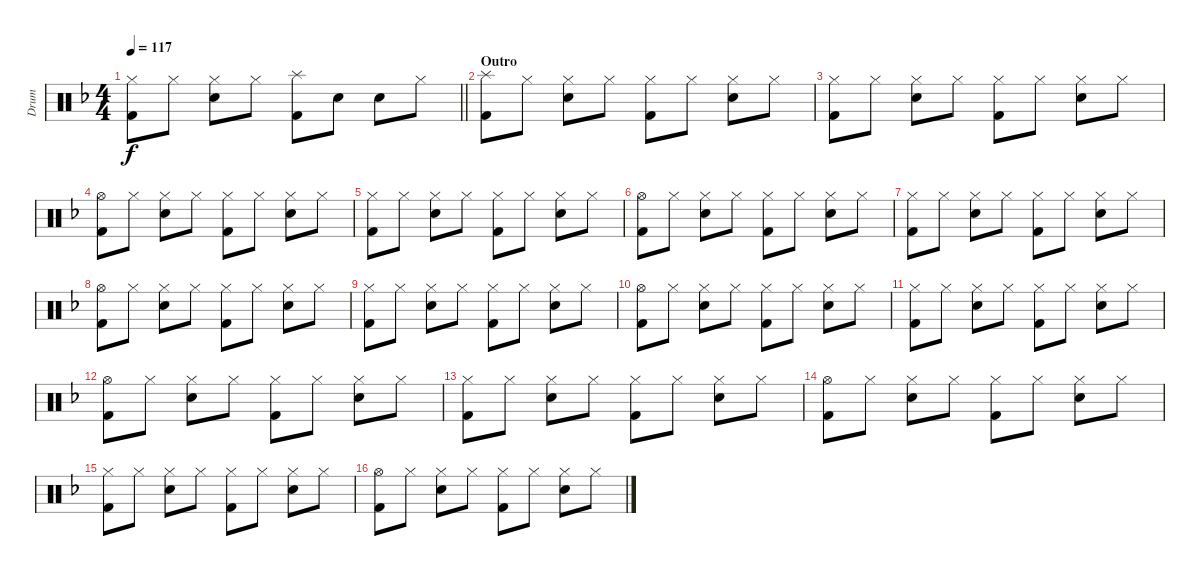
\track ("Drum" "Drum") {instrument percussion}
\staff {score}
\articulation defaults
\ts (4 4)
\tempo 117
\clef neutral
\barLineRight lightlight
\ks f
("Kick (hit) 2" "Hi-Hat (closed)").8{dy f} "Hi-Hat (closed)".8 ("Snare (hit) 2" "Hi-Hat (closed)").8 "Hi-Hat (closed)".8 ("Kick (hit) 2" "Splash (hit)").8 "Snare (hit) 2".8 "Snare (hit) 2".8 "Hi-Hat (closed)".8 |
\section ("" "Outro")
("Kick (hit) 2" "Splash (hit)").8 "Hi-Hat (closed)".8 ("Snare (hit) 2" "Hi-Hat (closed)").8 "Hi-Hat (closed)".8 ("Kick (hit) 2" "Hi-Hat (closed)").8 "Hi-Hat (closed)".8 ("Snare (hit) 2" "Hi-Hat (closed)").8 "Hi-Hat (closed)".8 |
("Kick (hit) 2" "Hi-Hat (closed)").8 "Hi-Hat (closed)".8 ("Snare (hit) 2" "Hi-Hat (closed)").8 "Hi-Hat (closed)".8 ("Kick (hit) 2" "Hi-Hat (closed)").8 "Hi-Hat (closed)".8 ("Snare (hit) 2" "Hi-Hat (closed)").8 "Hi-Hat (closed)".8 |
("Kick (hit) 2" "Hi-Hat (open)").8 "Hi-Hat (closed)".8 ("Snare (hit) 2" "Hi-Hat (closed)").8 "Hi-Hat (closed)".8 ("Kick (hit) 2" "Hi-Hat (closed)").8 "Hi-Hat (closed)".8 ("Snare (hit) 2" "Hi-Hat (closed)").8 "Hi-Hat (closed)".8 |
("Kick (hit) 2" "Hi-Hat (closed)").8 "Hi-Hat (closed)".8 ("Snare (hit) 2" "Hi-Hat (closed)").8 "Hi-Hat (closed)".8 ("Kick (hit) 2" "Hi-Hat (closed)").8 "Hi-Hat (closed)".8 ("Snare (hit) 2" "Hi-Hat (closed)").8 "Hi-Hat (closed)".8 |
("Kick (hit) 2" "Hi-Hat (open)").8 "Hi-Hat (closed)".8 ("Snare (hit) 2" "Hi-Hat (closed)").8 "Hi-Hat (closed)".8 ("Kick (hit) 2" "Hi-Hat (closed)").8 "Hi-Hat (closed)".8 ("Snare (hit) 2" "Hi-Hat (closed)").8 "Hi-Hat (closed)".8 |
("Kick (hit) 2" "Hi-Hat (closed)").8 "Hi-Hat (closed)".8 ("Snare (hit) 2" "Hi-Hat (closed)").8 "Hi-Hat (closed)".8 ("Kick (hit) 2" "Hi-Hat (closed)").8 "Hi-Hat (closed)".8 ("Snare (hit) 2" "Hi-Hat (closed)").8 "Hi-Hat (closed)".8 |
("Kick (hit) 2" "Hi-Hat (open)").8 "Hi-Hat (closed)".8 ("Snare (hit) 2" "Hi-Hat (closed)").8 "Hi-Hat (closed)".8 ("Kick (hit) 2" "Hi-Hat (closed)").8 "Hi-Hat (closed)".8 ("Snare (hit) 2" "Hi-Hat (closed)").8 "Hi-Hat (closed)".8 |
("Kick (hit) 2" "Hi-Hat (closed)").8 "Hi-Hat (closed)".8 ("Snare (hit) 2" "Hi-Hat (closed)").8 "Hi-Hat (closed)".8 ("Kick (hit) 2" "Hi-Hat (closed)").8 "Hi-Hat (closed)".8 ("Snare (hit) 2" "Hi-Hat (closed)").8 "Hi-Hat (closed)".8 |
("Kick (hit) 2" "Hi-Hat (open)").8 "Hi-Hat (closed)".8 ("Snare (hit) 2" "Hi-Hat (closed)").8 "Hi-Hat (closed)".8 ("Kick (hit) 2" "Hi-Hat (closed)").8 "Hi-Hat (closed)".8 ("Snare (hit) 2" "Hi-Hat (closed)").8 "Hi-Hat (closed)".8 |
("Kick (hit) 2" "Hi-Hat (closed)").8 "Hi-Hat (closed)".8 ("Snare (hit) 2" "Hi-Hat (closed)").8 "Hi-Hat (closed)".8 ("Kick (hit) 2" "Hi-Hat (closed)").8 "Hi-Hat (closed)".8 ("Snare (hit) 2" "Hi-Hat (closed)").8 "Hi-Hat (closed)".8 |
("Kick (hit) 2" "Hi-Hat (open)").8 "Hi-Hat (closed)".8 ("Snare (hit) 2" "Hi-Hat (closed)").8 "Hi-Hat (closed)".8 ("Kick (hit) 2" "Hi-Hat (closed)").8 "Hi-Hat (closed)".8 ("Snare (hit) 2" "Hi-Hat (closed)").8 "Hi-Hat (closed)".8 |
("Kick (hit) 2" "Hi-Hat (closed)").8 "Hi-Hat (closed)".8 ("Snare (hit) 2" "Hi-Hat (closed)").8 "Hi-Hat (closed)".8 ("Kick (hit) 2" "Hi-Hat (closed)").8 "Hi-Hat (closed)".8 ("Snare (hit) 2" "Hi-Hat (closed)").8 "Hi-Hat (closed)".8 |
("Kick (hit) 2" "Hi-Hat (open)").8 "Hi-Hat (closed)".8 ("Snare (hit) 2" "Hi-Hat (closed)").8 "Hi-Hat (closed)".8 ("Kick (hit) 2" "Hi-Hat (closed)").8 "Hi-Hat (closed)".8 ("Snare (hit) 2" "Hi-Hat (closed)").8 "Hi-Hat (closed)".8 |
("Kick (hit) 2" "Hi-Hat (closed)").8 "Hi-Hat (closed)".8 ("Snare (hit) 2" "Hi-Hat (closed)").8 "Hi-Hat (closed)".8 ("Kick (hit) 2" "Hi-Hat (closed)").8 "Hi-Hat (closed)".8 ("Snare (hit) 2" "Hi-Hat (closed)").8 "Hi-Hat (closed)".8 |
("Kick (hit) 2" "Hi-Hat (open)").8 "Hi-Hat (closed)".8 ("Snare (hit) 2" "Hi-Hat (closed)").8 "Hi-Hat (closed)".8 ("Kick (hit) 2" "Hi-Hat (closed)").8 "Hi-Hat (closed)".8 ("Snare (hit) 2" "Hi-Hat (closed)").8 "Hi-Hat (closed)".8
